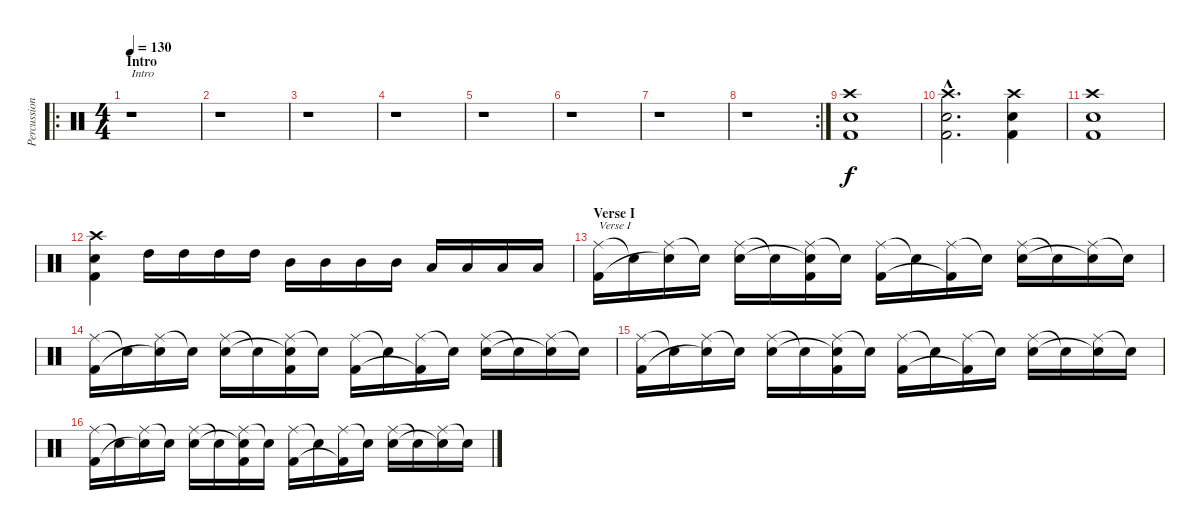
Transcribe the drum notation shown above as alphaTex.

\track ("Percussion" "Percussion") {instrument percussion}
\staff {score}
\articulation defaults
\ro
\ts (4 4)
\section ("" "Intro")
\tempo 130
\clef neutral
\ks c
r.1{txt "Intro" dy f} |
r.1 |
r.1 |
r.1 |
r.1 |
r.1 |
r.1 |
\rc 2
r.1 |
("Crash high (hit)" "Electric Snare (hit)" "Kick (hit) 2").1 |
("Crash high (hit)"{hac} "Electric Snare (hit)"{hac} "Kick (hit) 2"{hac}).2{d} ("Crash high (hit)" "Electric Snare (hit)" "Kick (hit) 2").4 |
("Crash high (hit)" "Electric Snare (hit)" "Kick (hit) 2").1 |
("Crash high (hit)" "Electric Snare (hit)" "Kick (hit) 2").4 "High Tom (hit)".16 "High Tom (hit)".16 "High Tom (hit)".16 "High Tom (hit)".16 "Mid Tom (hit)".16 "Mid Tom (hit)".16 "Mid Tom (hit)".16 "Mid Tom (hit)".16 "Low Tom (hit)".16 "Low Tom (hit)".16 "Low Tom (hit)".16 "Low Tom (hit)".16 |
\section ("" "Verse I")
("Ride (middle)" "Kick (hit) 2").16{txt "Verse I"} "Snare (hit)"{t}.16 ("Ride (middle)" "Snare (hit)"{t}).16 "Snare (hit)"{t}.16 ("Ride (middle)" "Electric Snare (hit)").16 "Snare (hit)"{t}.16 ("Ride (middle)" "Snare (hit)"{t} "Kick (hit) 2").16 "Snare (hit)"{t}.16 ("Ride (middle)" "Kick (hit) 2").16 "Snare (hit)"{t}.16 ("Ride (middle)" "Kick (hit) 2"{t}).16 "Snare (hit)"{t}.16 ("Ride (middle)" "Electric Snare (hit)").16 "Snare (hit)"{t}.16 ("Ride (middle)" "Snare (hit)"{t}).16 "Snare (hit)"{t}.16 |
("Ride (middle)" "Kick (hit) 2").16 "Snare (hit)"{t}.16 ("Ride (middle)" "Snare (hit)"{t}).16 "Snare (hit)"{t}.16 ("Ride (middle)" "Electric Snare (hit)").16 "Snare (hit)"{t}.16 ("Ride (middle)" "Snare (hit)"{t} "Kick (hit) 2").16 "Snare (hit)"{t}.16 ("Ride (middle)" "Kick (hit) 2").16 "Snare (hit)"{t}.16 ("Ride (middle)" "Kick (hit) 2"{t}).16 "Snare (hit)"{t}.16 ("Ride (middle)" "Electric Snare (hit)").16 "Snare (hit)"{t}.16 ("Ride (middle)" "Snare (hit)"{t}).16 "Snare (hit)"{t}.16 |
("Ride (middle)" "Kick (hit) 2").16 "Snare (hit)"{t}.16 ("Ride (middle)" "Snare (hit)"{t}).16 "Snare (hit)"{t}.16 ("Ride (middle)" "Electric Snare (hit)").16 "Snare (hit)"{t}.16 ("Ride (middle)" "Snare (hit)"{t} "Kick (hit) 2").16 "Snare (hit)"{t}.16 ("Ride (middle)" "Kick (hit) 2").16 "Snare (hit)"{t}.16 ("Ride (middle)" "Kick (hit) 2"{t}).16 "Snare (hit)"{t}.16 ("Ride (middle)" "Electric Snare (hit)").16 "Snare (hit)"{t}.16 ("Ride (middle)" "Snare (hit)"{t}).16 "Snare (hit)"{t}.16 |
("Ride (middle)" "Kick (hit) 2").16 "Snare (hit)"{t}.16 ("Ride (middle)" "Snare (hit)"{t}).16 "Snare (hit)"{t}.16 ("Ride (middle)" "Electric Snare (hit)").16 "Snare (hit)"{t}.16 ("Ride (middle)" "Snare (hit)"{t} "Kick (hit) 2").16 "Snare (hit)"{t}.16 ("Ride (middle)" "Kick (hit) 2").16 "Snare (hit)"{t}.16 ("Ride (middle)" "Kick (hit) 2"{t}).16 "Snare (hit)"{t}.16 ("Ride (middle)" "Electric Snare (hit)").16 "Snare (hit)"{t}.16 ("Ride (middle)" "Snare (hit)"{t}).16 "Snare (hit)"{t}.16
